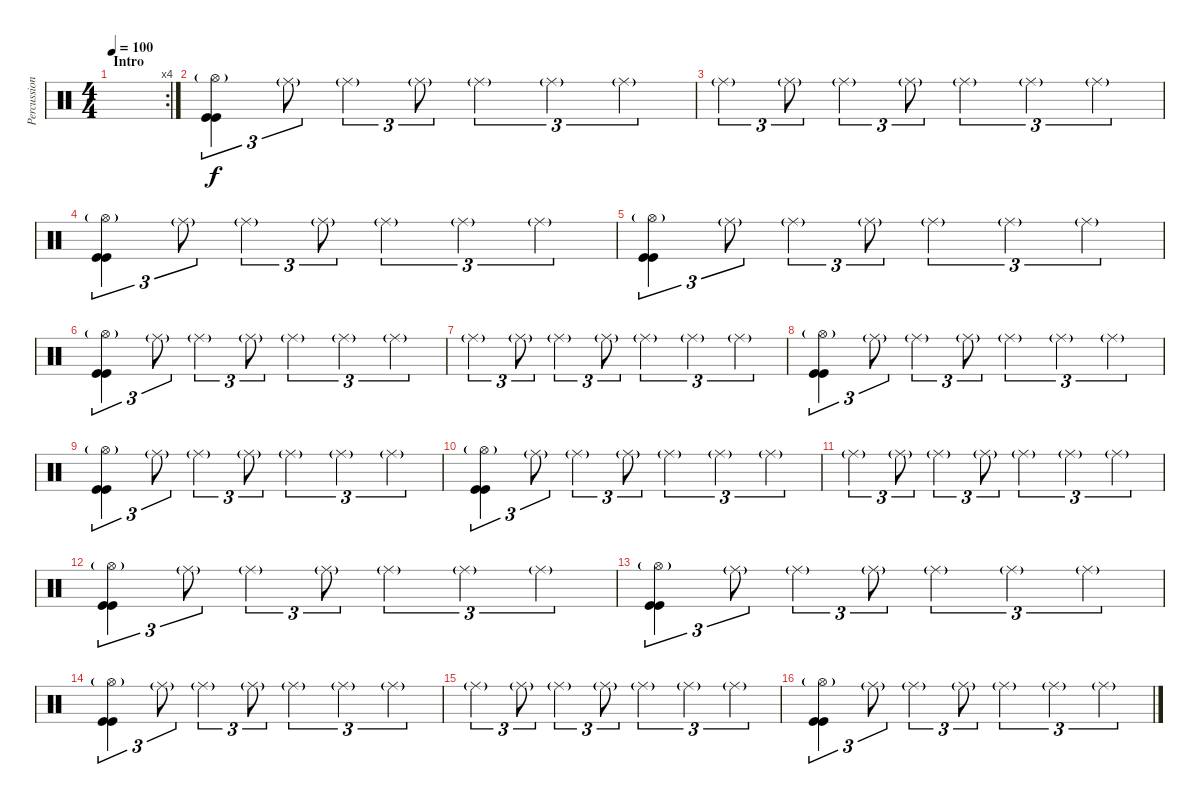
\track ("Percussions" "Percussion") {instrument percussion}
\staff {score}
\articulation defaults
\rc 4
\ts (4 4)
\section ("" "Intro")
\tempo 100
\clef neutral
\ks c
|
("Hi-Hat (open)"{g} "Kick (hit)" "Kick (hit)").4{tu (3 2)} "Ride (middle)"{g}.8{tu (3 2)} "Ride (middle)"{g}.4{tu (3 2)} "Ride (middle)"{g}.8{tu (3 2)} "Ride (middle)"{g}.4{tu (3 2)} "Ride (middle)"{g}.4{tu (3 2)} "Ride (middle)"{g}.4{tu (3 2)} |
"Ride (middle)"{g}.4{tu (3 2)} "Ride (middle)"{g}.8{tu (3 2)} "Ride (middle)"{g}.4{tu (3 2)} "Ride (middle)"{g}.8{tu (3 2)} "Ride (middle)"{g}.4{tu (3 2)} "Ride (middle)"{g}.4{tu (3 2)} "Ride (middle)"{g}.4{tu (3 2)} |
("Hi-Hat (open)"{g} "Kick (hit)" "Kick (hit)").4{tu (3 2)} "Ride (middle)"{g}.8{tu (3 2)} "Ride (middle)"{g}.4{tu (3 2)} "Ride (middle)"{g}.8{tu (3 2)} "Ride (middle)"{g}.4{tu (3 2)} "Ride (middle)"{g}.4{tu (3 2)} "Ride (middle)"{g}.4{tu (3 2)} |
("Hi-Hat (open)"{g} "Kick (hit)" "Kick (hit)").4{tu (3 2)} "Ride (middle)"{g}.8{tu (3 2)} "Ride (middle)"{g}.4{tu (3 2)} "Ride (middle)"{g}.8{tu (3 2)} "Ride (middle)"{g}.4{tu (3 2)} "Ride (middle)"{g}.4{tu (3 2)} "Ride (middle)"{g}.4{tu (3 2)} |
("Hi-Hat (open)"{g} "Kick (hit)" "Kick (hit)").4{tu (3 2)} "Ride (middle)"{g}.8{tu (3 2)} "Ride (middle)"{g}.4{tu (3 2)} "Ride (middle)"{g}.8{tu (3 2)} "Ride (middle)"{g}.4{tu (3 2)} "Ride (middle)"{g}.4{tu (3 2)} "Ride (middle)"{g}.4{tu (3 2)} |
"Ride (middle)"{g}.4{tu (3 2)} "Ride (middle)"{g}.8{tu (3 2)} "Ride (middle)"{g}.4{tu (3 2)} "Ride (middle)"{g}.8{tu (3 2)} "Ride (middle)"{g}.4{tu (3 2)} "Ride (middle)"{g}.4{tu (3 2)} "Ride (middle)"{g}.4{tu (3 2)} |
("Hi-Hat (open)"{g} "Kick (hit)" "Kick (hit)").4{tu (3 2)} "Ride (middle)"{g}.8{tu (3 2)} "Ride (middle)"{g}.4{tu (3 2)} "Ride (middle)"{g}.8{tu (3 2)} "Ride (middle)"{g}.4{tu (3 2)} "Ride (middle)"{g}.4{tu (3 2)} "Ride (middle)"{g}.4{tu (3 2)} |
("Hi-Hat (open)"{g} "Kick (hit)" "Kick (hit)").4{tu (3 2)} "Ride (middle)"{g}.8{tu (3 2)} "Ride (middle)"{g}.4{tu (3 2)} "Ride (middle)"{g}.8{tu (3 2)} "Ride (middle)"{g}.4{tu (3 2)} "Ride (middle)"{g}.4{tu (3 2)} "Ride (middle)"{g}.4{tu (3 2)} |
("Hi-Hat (open)"{g} "Kick (hit)" "Kick (hit)").4{tu (3 2)} "Ride (middle)"{g}.8{tu (3 2)} "Ride (middle)"{g}.4{tu (3 2)} "Ride (middle)"{g}.8{tu (3 2)} "Ride (middle)"{g}.4{tu (3 2)} "Ride (middle)"{g}.4{tu (3 2)} "Ride (middle)"{g}.4{tu (3 2)} |
"Ride (middle)"{g}.4{tu (3 2)} "Ride (middle)"{g}.8{tu (3 2)} "Ride (middle)"{g}.4{tu (3 2)} "Ride (middle)"{g}.8{tu (3 2)} "Ride (middle)"{g}.4{tu (3 2)} "Ride (middle)"{g}.4{tu (3 2)} "Ride (middle)"{g}.4{tu (3 2)} |
("Hi-Hat (open)"{g} "Kick (hit)" "Kick (hit)").4{tu (3 2)} "Ride (middle)"{g}.8{tu (3 2)} "Ride (middle)"{g}.4{tu (3 2)} "Ride (middle)"{g}.8{tu (3 2)} "Ride (middle)"{g}.4{tu (3 2)} "Ride (middle)"{g}.4{tu (3 2)} "Ride (middle)"{g}.4{tu (3 2)} |
("Hi-Hat (open)"{g} "Kick (hit)" "Kick (hit)").4{tu (3 2)} "Ride (middle)"{g}.8{tu (3 2)} "Ride (middle)"{g}.4{tu (3 2)} "Ride (middle)"{g}.8{tu (3 2)} "Ride (middle)"{g}.4{tu (3 2)} "Ride (middle)"{g}.4{tu (3 2)} "Ride (middle)"{g}.4{tu (3 2)} |
("Hi-Hat (open)"{g} "Kick (hit)" "Kick (hit)").4{tu (3 2)} "Ride (middle)"{g}.8{tu (3 2)} "Ride (middle)"{g}.4{tu (3 2)} "Ride (middle)"{g}.8{tu (3 2)} "Ride (middle)"{g}.4{tu (3 2)} "Ride (middle)"{g}.4{tu (3 2)} "Ride (middle)"{g}.4{tu (3 2)} |
"Ride (middle)"{g}.4{tu (3 2)} "Ride (middle)"{g}.8{tu (3 2)} "Ride (middle)"{g}.4{tu (3 2)} "Ride (middle)"{g}.8{tu (3 2)} "Ride (middle)"{g}.4{tu (3 2)} "Ride (middle)"{g}.4{tu (3 2)} "Ride (middle)"{g}.4{tu (3 2)} |
("Hi-Hat (open)"{g} "Kick (hit)" "Kick (hit)").4{tu (3 2)} "Ride (middle)"{g}.8{tu (3 2)} "Ride (middle)"{g}.4{tu (3 2)} "Ride (middle)"{g}.8{tu (3 2)} "Ride (middle)"{g}.4{tu (3 2)} "Ride (middle)"{g}.4{tu (3 2)} "Ride (middle)"{g}.4{tu (3 2)}
